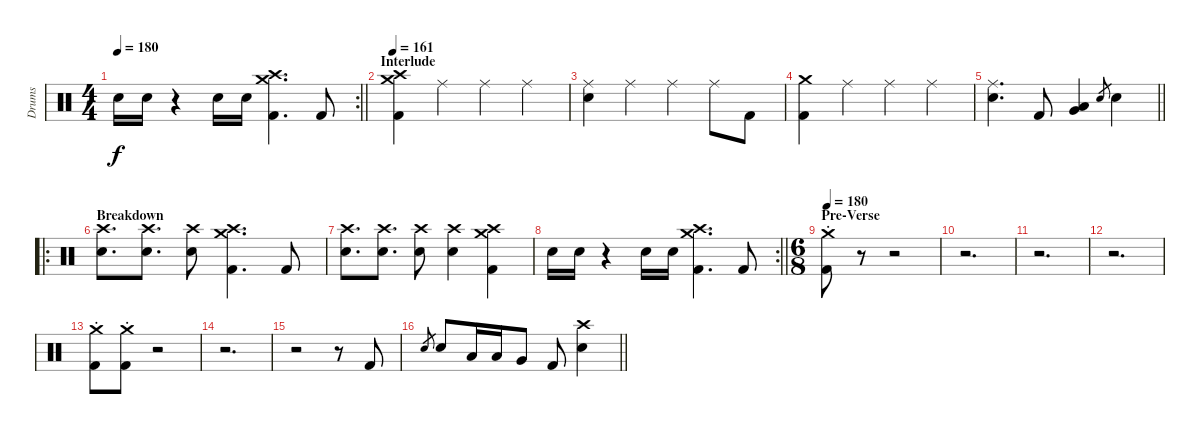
\track ("Drums" "Drums") {instrument percussion}
\staff {score}
\articulation defaults
\rc 2
\ts (4 4)
\tempo 180
\clef neutral
\barLineRight lightlight
\ks c "Electric Snare (hit)".16{dy f} "Electric Snare (hit)".16
r.4 "Electric Snare (hit)".16 "Electric Snare (hit)".16 ("Crash medium (hit)" "Crash high (hit)" "Kick (hit) 2").4{d} "Kick (hit) 2".8 |
\section ("" "Interlude")
\tempo 161
("Crash medium (hit)" "Crash high (hit)" "Kick (hit) 2").4 "Ride (middle)".4 "Ride (middle)".4 "Ride (middle)".4 |
("Ride (middle)" "Electric Snare (hit)").4 "Ride (middle)".4 "Ride (middle)".4 "Ride (middle)".8 "Kick (hit) 2".8 |
("Crash medium (hit)" "Kick (hit) 2").4 "Ride (middle)".4 "Ride (middle)".4 "Ride (middle)".4 |
\barLineRight lightlight
("Ride (middle)" "Electric Snare (hit)").4{d} "Kick (hit) 2".8 ("Very Low Tom (hit)" "Low Floor Tom (hit)").4 "Electric Snare (hit)".8{gr} "Electric Snare (hit)".4 |
\ro
\section ("" "Breakdown")
("Crash high (hit)" "Electric Snare (hit)").8{d} ("Crash high (hit)" "Electric Snare (hit)").8{d} ("Crash high (hit)" "Electric Snare (hit)").8 ("Crash medium (hit)" "Crash high (hit)" "Kick (hit) 2").4{d} "Kick (hit) 2".8 |
("Crash high (hit)" "Electric Snare (hit)").8{d} ("Crash high (hit)" "Electric Snare (hit)").8{d} ("Crash high (hit)" "Electric Snare (hit)").8 ("Crash high (hit)" "Electric Snare (hit)").4 ("Crash medium (hit)" "Crash high (hit)" "Kick (hit) 2").4 |
\rc 2
\barLineRight lightlight "Electric Snare (hit)".16 "Electric Snare (hit)".16
r.4 "Electric Snare (hit)".16 "Electric Snare (hit)".16 ("Crash medium (hit)" "Crash high (hit)" "Kick (hit) 2").4{d} "Kick (hit) 2".8 |
\ts (6 8)
\section ("" "Pre-Verse")
\tempo 180
("Crash medium (hit)"{st} "Kick (hit) 2").8 r.8{volume 0} r.2 |
r.2{d} |
r.2{d} |
r.2{d} |
("Crash medium (hit)"{st} "Kick (hit) 2").8{volume 14} ("Crash medium (hit)"{st} "Kick (hit) 2").8 r.2{volume 0} |
r.2{d} |
r.2 r.8 "Kick (hit) 2".8{volume 14} |
\barLineRight lightlight "Electric Snare (hit)".8{gr} "Electric Snare (hit)".8 "Low Tom (hit)".16 "Low Tom (hit)".16 "Very Low Tom (hit)".8 "Kick (hit) 2".8
("Crash high (hit)" "Electric Snare (hit)").4
